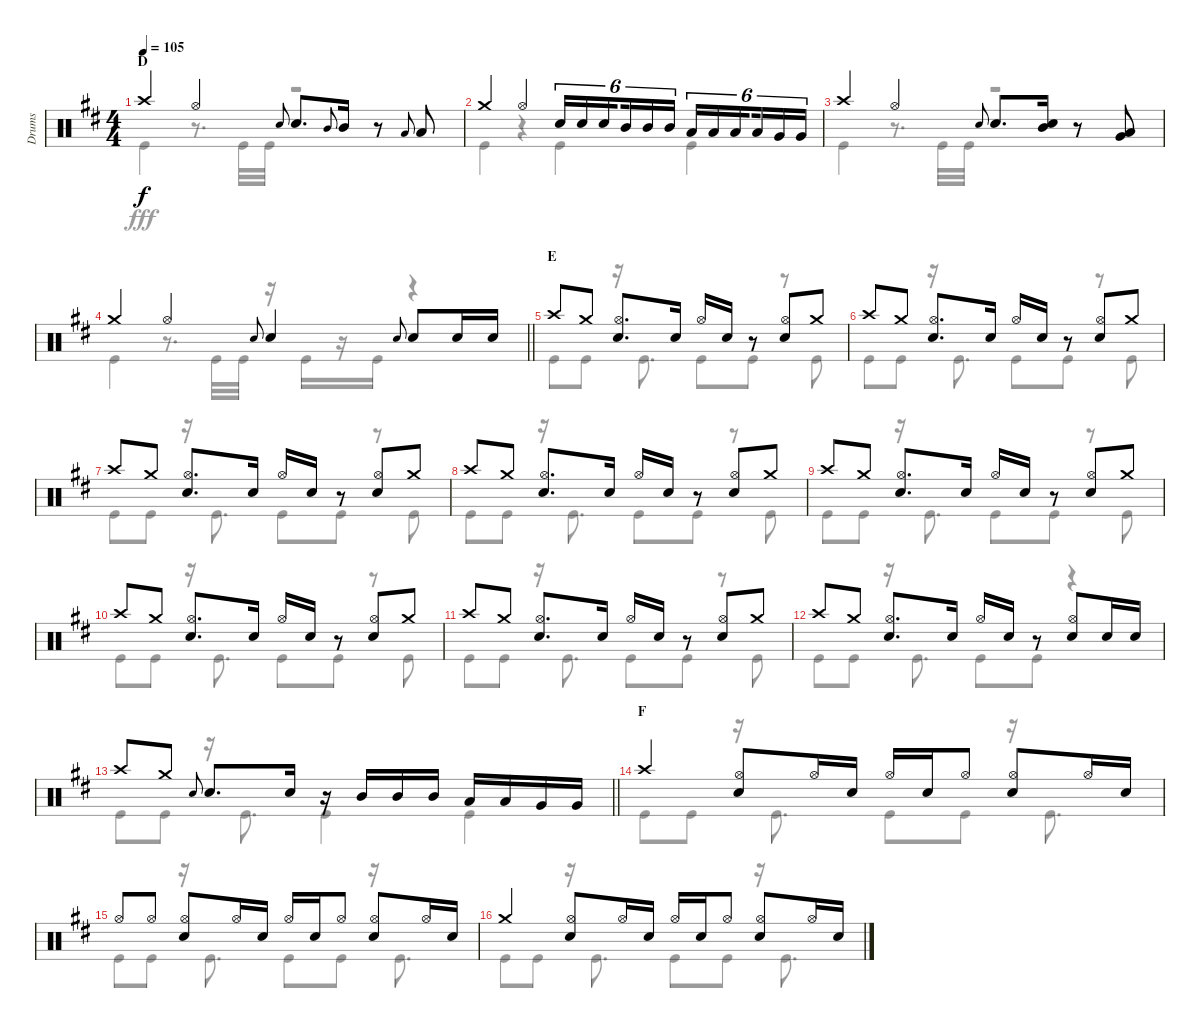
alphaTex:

\track ("Drums" "Drums") {instrument percussion}
\staff {score}
\articulation defaults
\voice
\ts (4 4)
\section ("" "D")
\tempo 105
\clef neutral
\ks d "Crash high (hit)".4{dy f} "Hi-Hat (open)".4 "Snare (hit) 2".8{gr onbeat} "Snare (hit) 2".8{d} "Mid Tom (hit)".8{gr onbeat} "Mid Tom (hit)".16
r.8 "Low Tom (hit)".8{gr onbeat} "Low Tom (hit)".8 |
"Crash medium (hit)".4 "Hi-Hat (open)".4 "Snare (hit) 2".16{tu (6 4)} "Snare (hit) 2".16{tu (6 4)} "Snare (hit) 2".16{tu (6 4) beam splitsecondary} "Mid Tom (hit)".16{tu (6 4)} "Mid Tom (hit)".16{tu (6 4)} "Mid Tom (hit)".16{tu (6 4)} "Low Tom (hit)".16{tu (6 4)} "Low Tom (hit)".16{tu (6 4)} "Low Tom (hit)".16{tu (6 4) beam splitsecondary} "Low Tom (hit)".16{tu (6 4)} "Very Low Tom (hit)".16{tu (6 4)} "Very Low Tom (hit)".16{tu (6 4)} |
"Crash high (hit)".4 "Hi-Hat (open)".4 "Snare (hit) 2".8{gr onbeat} "Snare (hit) 2".8{d} ("Mid Tom (hit)" "Snare (hit) 2").16 r.8 ("Low Tom (hit)" "Very Low Tom (hit)").8 |
\barLineRight lightlight "Crash medium (hit)".4 "Hi-Hat (open)".4 "Snare (hit) 2".8{gr onbeat} "Snare (hit) 2".4 "Snare (hit) 2".8{gr onbeat} "Snare (hit) 2".8 "Snare (hit) 2".16 "Snare (hit) 2".16
|
\section ("" "E")
"Crash high (hit)".8 "Crash medium (hit)".8 ("Hi-Hat (open)" "Snare (hit) 2").8{d} "Snare (hit) 2".16 "Hi-Hat (open)".16 "Snare (hit) 2".16 r.8 ("Hi-Hat (open)" "Snare (hit) 2").8 "Crash medium (hit)".8 |
"Crash high (hit)".8 "Crash medium (hit)".8 ("Hi-Hat (open)" "Snare (hit) 2").8{d} "Snare (hit) 2".16 "Hi-Hat (open)".16 "Snare (hit) 2".16 r.8 ("Hi-Hat (open)" "Snare (hit) 2").8 "Crash medium (hit)".8 |
"Crash high (hit)".8 "Crash medium (hit)".8 ("Hi-Hat (open)" "Snare (hit) 2").8{d} "Snare (hit) 2".16 "Hi-Hat (open)".16 "Snare (hit) 2".16 r.8 ("Hi-Hat (open)" "Snare (hit) 2").8 "Crash medium (hit)".8 |
"Crash high (hit)".8 "Crash medium (hit)".8 ("Hi-Hat (open)" "Snare (hit) 2").8{d} "Snare (hit) 2".16 "Hi-Hat (open)".16 "Snare (hit) 2".16 r.8 ("Hi-Hat (open)" "Snare (hit) 2").8 "Crash medium (hit)".8 |
"Crash high (hit)".8 "Crash medium (hit)".8 ("Hi-Hat (open)" "Snare (hit) 2").8{d} "Snare (hit) 2".16 "Hi-Hat (open)".16 "Snare (hit) 2".16 r.8 ("Hi-Hat (open)" "Snare (hit) 2").8 "Crash medium (hit)".8 |
"Crash high (hit)".8 "Crash medium (hit)".8 ("Hi-Hat (open)" "Snare (hit) 2").8{d} "Snare (hit) 2".16 "Hi-Hat (open)".16 "Snare (hit) 2".16 r.8 ("Hi-Hat (open)" "Snare (hit) 2").8 "Crash medium (hit)".8 |
"Crash high (hit)".8 "Crash medium (hit)".8 ("Hi-Hat (open)" "Snare (hit) 2").8{d} "Snare (hit) 2".16 "Hi-Hat (open)".16 "Snare (hit) 2".16 r.8 ("Hi-Hat (open)" "Snare (hit) 2").8 "Crash medium (hit)".8 |
"Crash high (hit)".8 "Crash medium (hit)".8 ("Hi-Hat (open)" "Snare (hit) 2").8{d} "Snare (hit) 2".16 "Hi-Hat (open)".16 "Snare (hit) 2".16 r.8 ("Hi-Hat (open)" "Snare (hit) 2").8 "Snare (hit) 2".16 "Snare (hit) 2".16 |
\barLineRight lightlight "Crash high (hit)".8 "Crash medium (hit)".8 "Snare (hit) 2".8{gr onbeat} "Snare (hit) 2".8{d} "Snare (hit) 2".16
r.16 "Mid Tom (hit)".16 "Mid Tom (hit)".16 "Mid Tom (hit)".16 "Low Tom (hit)".16 "Low Tom (hit)".16 "Very Low Tom (hit)".16 "Very Low Tom (hit)".16 |
\section ("" "F")
"Crash high (hit)".4 ("Hi-Hat (open)" "Snare (hit) 2").8 "Hi-Hat (open)".16 "Snare (hit) 2".16 "Hi-Hat (open)".16 "Snare (hit) 2".16 "Hi-Hat (open)".8 ("Hi-Hat (open)" "Snare (hit) 2").8 "Hi-Hat (open)".16 "Snare (hit) 2".16 |
"Hi-Hat (open)".8 "Hi-Hat (open)".8 ("Hi-Hat (open)" "Snare (hit) 2").8 "Hi-Hat (open)".16 "Snare (hit) 2".16 "Hi-Hat (open)".16 "Snare (hit) 2".16 "Hi-Hat (open)".8 ("Hi-Hat (open)" "Snare (hit) 2").8 "Hi-Hat (open)".16 "Snare (hit) 2".16 |
"Crash medium (hit)".4 ("Hi-Hat (open)" "Snare (hit) 2").8 "Hi-Hat (open)".16 "Snare (hit) 2".16 "Hi-Hat (open)".16 "Snare (hit) 2".16 "Hi-Hat (open)".8 ("Hi-Hat (open)" "Snare (hit) 2").8 "Hi-Hat (open)".16 "Snare (hit) 2".16
\voice
\clef neutral
\ottava regular
\simile none
\ks d "Kick (hit)".4{dy fff}
r.8{d} "Kick (hit)".32 "Kick (hit)".32 r.2 |
"Kick (hit)".4 r.4 "Kick (hit)".4 "Kick (hit)".4 |
"Kick (hit)".4 r.8{d} "Kick (hit)".32 "Kick (hit)".32 r.2 |
\barLineRight lightlight "Kick (hit)".4
r.8{d} "Kick (hit)".32 "Kick (hit)".32 r.16 "Kick (hit)".16 r.16 "Kick (hit)".16 r.4 |
"Kick (hit)".8 "Kick (hit)".8 r.16 "Kick (hit)".8{d} "Kick (hit)".8 "Kick (hit)".8 r.8 "Kick (hit)".8 |
"Kick (hit)".8 "Kick (hit)".8 r.16 "Kick (hit)".8{d} "Kick (hit)".8 "Kick (hit)".8 r.8 "Kick (hit)".8 |
"Kick (hit)".8 "Kick (hit)".8 r.16 "Kick (hit)".8{d} "Kick (hit)".8 "Kick (hit)".8 r.8 "Kick (hit)".8 |
"Kick (hit)".8 "Kick (hit)".8 r.16 "Kick (hit)".8{d} "Kick (hit)".8 "Kick (hit)".8 r.8 "Kick (hit)".8 |
"Kick (hit)".8 "Kick (hit)".8 r.16 "Kick (hit)".8{d} "Kick (hit)".8 "Kick (hit)".8 r.8 "Kick (hit)".8 |
"Kick (hit)".8 "Kick (hit)".8 r.16 "Kick (hit)".8{d} "Kick (hit)".8 "Kick (hit)".8 r.8 "Kick (hit)".8 |
"Kick (hit)".8 "Kick (hit)".8 r.16 "Kick (hit)".8{d} "Kick (hit)".8 "Kick (hit)".8 r.8 "Kick (hit)".8 |
"Kick (hit)".8 "Kick (hit)".8 r.16 "Kick (hit)".8{d} "Kick (hit)".8 "Kick (hit)".8 r.4 |
\barLineRight lightlight "Kick (hit)".8 "Kick (hit)".8
r.16 "Kick (hit)".8{d} "Kick (hit)".4 "Kick (hit)".4 |
"Kick (hit)".8 "Kick (hit)".8 r.16 "Kick (hit)".8{d} "Kick (hit)".8 "Kick (hit)".8 r.16 "Kick (hit)".8{d} |
"Kick (hit)".8 "Kick (hit)".8 r.16 "Kick (hit)".8{d} "Kick (hit)".8 "Kick (hit)".8 r.16 "Kick (hit)".8{d} |
"Kick (hit)".8 "Kick (hit)".8 r.16 "Kick (hit)".8{d} "Kick (hit)".8 "Kick (hit)".8 r.16 "Kick (hit)".8{d}
